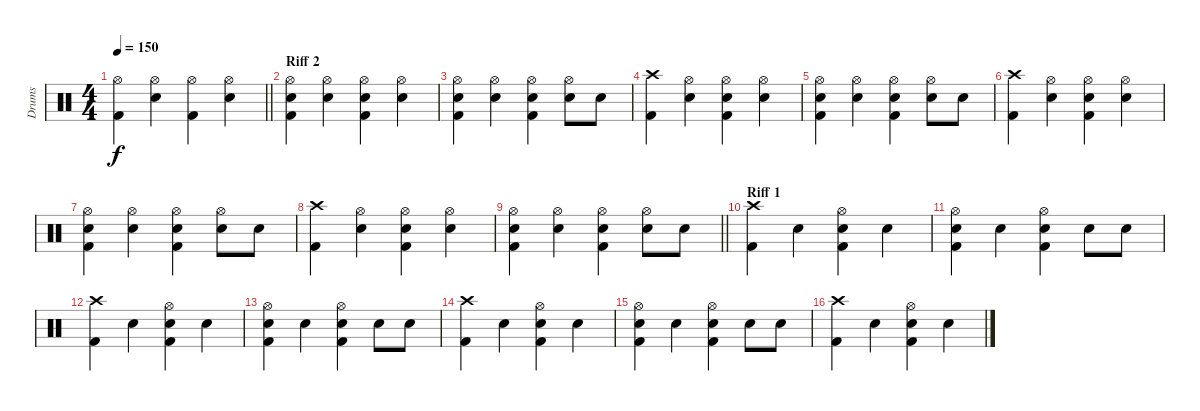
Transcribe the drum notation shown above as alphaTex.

\track ("Drums" "Drums") {instrument percussion}
\staff
\articulation defaults
\ts (4 4)
\tempo 150
\clef neutral
\barLineRight lightlight
\ks c
("Hi-Hat (open)" "Kick (hit) 2").4{dy f} ("Hi-Hat (open)" "Snare (hit) 2").4 ("Hi-Hat (open)" "Kick (hit) 2").4 ("Hi-Hat (open)" "Snare (hit) 2").4 |
\section ("" "Riff 2")
("Hi-Hat (open)" "Snare (hit) 2" "Kick (hit) 2").4 ("Hi-Hat (open)" "Snare (hit) 2").4 ("Hi-Hat (open)" "Snare (hit) 2" "Kick (hit) 2").4 ("Hi-Hat (open)" "Snare (hit) 2").4 |
("Hi-Hat (open)" "Snare (hit) 2" "Kick (hit) 2").4 ("Hi-Hat (open)" "Snare (hit) 2").4 ("Hi-Hat (open)" "Snare (hit) 2" "Kick (hit) 2").4 ("Hi-Hat (open)" "Snare (hit) 2").8 "Snare (hit) 2".8 |
("Crash high (hit)" "Kick (hit) 2").4 ("Hi-Hat (open)" "Snare (hit) 2").4 ("Hi-Hat (open)" "Snare (hit) 2" "Kick (hit) 2").4 ("Hi-Hat (open)" "Snare (hit) 2").4 |
("Hi-Hat (open)" "Snare (hit) 2" "Kick (hit) 2").4 ("Hi-Hat (open)" "Snare (hit) 2").4 ("Hi-Hat (open)" "Snare (hit) 2" "Kick (hit) 2").4 ("Hi-Hat (open)" "Snare (hit) 2").8 "Snare (hit) 2".8 |
("Crash high (hit)" "Kick (hit) 2").4 ("Hi-Hat (open)" "Snare (hit) 2").4 ("Hi-Hat (open)" "Snare (hit) 2" "Kick (hit) 2").4 ("Hi-Hat (open)" "Snare (hit) 2").4 |
("Hi-Hat (open)" "Snare (hit) 2" "Kick (hit) 2").4 ("Hi-Hat (open)" "Snare (hit) 2").4 ("Hi-Hat (open)" "Snare (hit) 2" "Kick (hit) 2").4 ("Hi-Hat (open)" "Snare (hit) 2").8 "Snare (hit) 2".8 |
("Crash high (hit)" "Kick (hit) 2").4 ("Hi-Hat (open)" "Snare (hit) 2").4 ("Hi-Hat (open)" "Snare (hit) 2" "Kick (hit) 2").4 ("Hi-Hat (open)" "Snare (hit) 2").4 |
\barLineRight lightlight
("Hi-Hat (open)" "Snare (hit) 2" "Kick (hit) 2").4 ("Hi-Hat (open)" "Snare (hit) 2").4 ("Hi-Hat (open)" "Snare (hit) 2" "Kick (hit) 2").4 ("Hi-Hat (open)" "Snare (hit) 2").8 "Snare (hit) 2".8 |
\section ("" "Riff 1")
("Crash high (hit)" "Kick (hit) 2").4 "Snare (hit) 2".4 ("Hi-Hat (open)" "Snare (hit) 2" "Kick (hit) 2").4 "Snare (hit) 2".4 |
("Hi-Hat (open)" "Snare (hit) 2" "Kick (hit) 2").4 "Snare (hit) 2".4 ("Hi-Hat (open)" "Snare (hit) 2" "Kick (hit) 2").4 "Snare (hit) 2".8 "Snare (hit) 2".8 |
("Crash high (hit)" "Kick (hit) 2").4 "Snare (hit) 2".4 ("Hi-Hat (open)" "Snare (hit) 2" "Kick (hit) 2").4 "Snare (hit) 2".4 |
("Hi-Hat (open)" "Snare (hit) 2" "Kick (hit) 2").4 "Snare (hit) 2".4 ("Hi-Hat (open)" "Snare (hit) 2" "Kick (hit) 2").4 "Snare (hit) 2".8 "Snare (hit) 2".8 |
("Crash high (hit)" "Kick (hit) 2").4 "Snare (hit) 2".4 ("Hi-Hat (open)" "Snare (hit) 2" "Kick (hit) 2").4 "Snare (hit) 2".4 |
("Hi-Hat (open)" "Snare (hit) 2" "Kick (hit) 2").4 "Snare (hit) 2".4 ("Hi-Hat (open)" "Snare (hit) 2" "Kick (hit) 2").4 "Snare (hit) 2".8 "Snare (hit) 2".8 |
("Crash high (hit)" "Kick (hit) 2").4 "Snare (hit) 2".4 ("Hi-Hat (open)" "Snare (hit) 2" "Kick (hit) 2").4 "Snare (hit) 2".4
